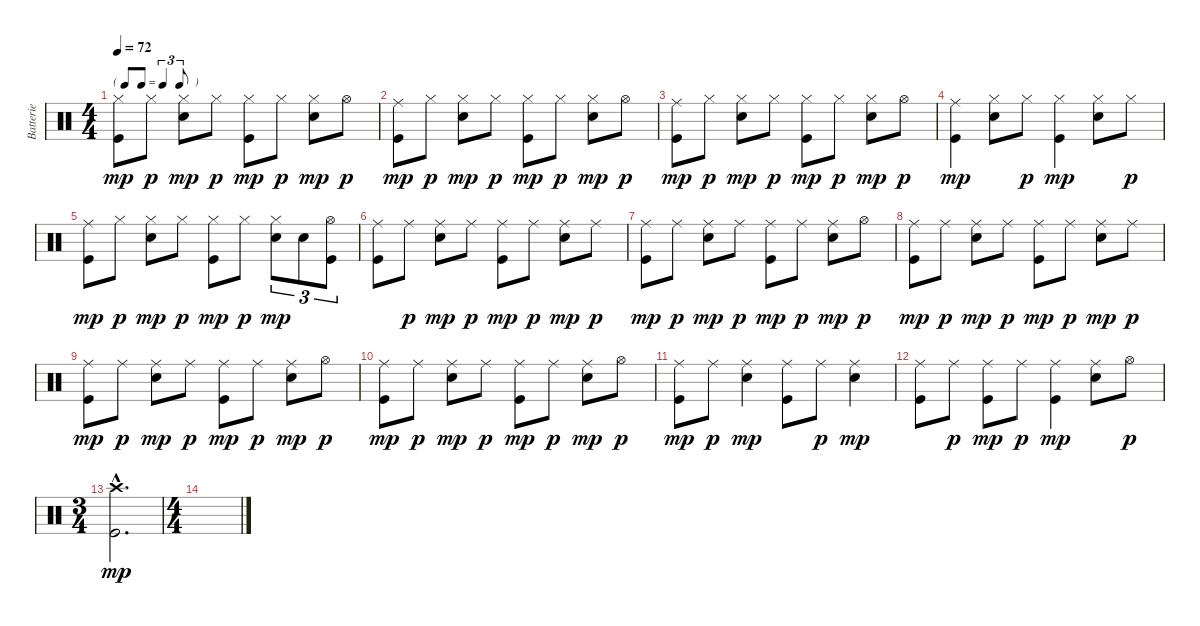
\track ("Batterie" "Batterie") {instrument percussion}
\staff {score}
\articulation defaults
\ts (4 4)
\tf triplet8th
\tempo 72
\clef neutral
\ks c
("Hi-Hat (closed)" "Kick (hit)").8{dy mp} "Hi-Hat (closed)".8{dy p} ("Hi-Hat (closed)" "Snare (hit) 2").8{dy mp} "Hi-Hat (closed)".8{dy p} ("Hi-Hat (closed)" "Kick (hit)").8{dy mp} "Hi-Hat (closed)".8{dy p} ("Hi-Hat (closed)" "Snare (hit) 2").8{dy mp} "Hi-Hat (open)".8{dy p} |
("Ride (middle)" "Kick (hit)").8{dy mp} "Hi-Hat (closed)".8{dy p} ("Hi-Hat (closed)" "Snare (hit) 2").8{dy mp} "Hi-Hat (closed)".8{dy p} ("Hi-Hat (closed)" "Kick (hit)").8{dy mp} "Hi-Hat (closed)".8{dy p} ("Hi-Hat (closed)" "Snare (hit) 2").8{dy mp} "Hi-Hat (open)".8{dy p} |
("Ride (middle)" "Kick (hit)").8{dy mp} "Hi-Hat (closed)".8{dy p} ("Hi-Hat (closed)" "Snare (hit) 2").8{dy mp} "Hi-Hat (closed)".8{dy p} ("Hi-Hat (closed)" "Kick (hit)").8{dy mp} "Hi-Hat (closed)".8{dy p} ("Hi-Hat (closed)" "Snare (hit) 2").8{dy mp} "Hi-Hat (open)".8{dy p} |
("Ride (middle)" "Kick (hit)").4{dy mp} ("Hi-Hat (closed)" "Snare (hit) 2").8 "Hi-Hat (closed)".8{dy p} ("Hi-Hat (closed)" "Kick (hit)").4{dy mp} ("Hi-Hat (closed)" "Snare (hit) 2").8 "Hi-Hat (closed)".8{dy p} |
("Ride (middle)" "Kick (hit)").8{dy mp} "Hi-Hat (closed)".8{dy p} ("Hi-Hat (closed)" "Snare (hit) 2").8{dy mp} "Hi-Hat (closed)".8{dy p} ("Hi-Hat (closed)" "Kick (hit)").8{dy mp} "Hi-Hat (closed)".8{dy p} ("Hi-Hat (closed)" "Snare (hit) 2").8{tu (3 2) dy mp} "Snare (hit) 2".8{tu (3 2)} ("Hi-Hat (open)" "Kick (hit)").8{tu (3 2)} |
("Ride (middle)" "Kick (hit)").8 "Ride (middle)".8{dy p} ("Ride (middle)" "Snare (hit) 2").8{dy mp} "Ride (middle)".8{dy p} ("Ride (middle)" "Kick (hit)").8{dy mp} "Ride (middle)".8{dy p} ("Ride (middle)" "Snare (hit) 2").8{dy mp} "Ride (middle)".8{dy p} |
("Ride (middle)" "Kick (hit)").8{dy mp} "Ride (middle)".8{dy p} ("Ride (middle)" "Snare (hit) 2").8{dy mp} "Ride (middle)".8{dy p} ("Ride (middle)" "Kick (hit)").8{dy mp} "Ride (middle)".8{dy p} ("Ride (middle)" "Snare (hit) 2").8{dy mp} "Hi-Hat (open)".8{dy p} |
("Ride (middle)" "Kick (hit)").8{dy mp} "Ride (middle)".8{dy p} ("Ride (middle)" "Snare (hit) 2").8{dy mp} "Ride (middle)".8{dy p} ("Ride (middle)" "Kick (hit)").8{dy mp} "Ride (middle)".8{dy p} ("Ride (middle)" "Snare (hit) 2").8{dy mp} "Ride (middle)".8{dy p} |
("Ride (middle)" "Kick (hit)").8{dy mp} "Ride (middle)".8{dy p} ("Ride (middle)" "Snare (hit) 2").8{dy mp} "Ride (middle)".8{dy p} ("Ride (middle)" "Kick (hit)").8{dy mp} "Ride (middle)".8{dy p} ("Ride (middle)" "Snare (hit) 2").8{dy mp} "Hi-Hat (open)".8{dy p} |
("Ride (middle)" "Kick (hit)").8{dy mp} "Ride (middle)".8{dy p} ("Ride (middle)" "Snare (hit) 2").8{dy mp} "Ride (middle)".8{dy p} ("Ride (middle)" "Kick (hit)").8{dy mp} "Ride (middle)".8{dy p} ("Ride (middle)" "Snare (hit) 2").8{dy mp} "Hi-Hat (open)".8{dy p} |
("Ride (middle)" "Kick (hit)").8{dy mp} "Ride (middle)".8{dy p} ("Ride (middle)" "Snare (hit) 2").4{dy mp} ("Ride (middle)" "Kick (hit)").8 "Ride (middle)".8{dy p} ("Ride (middle)" "Snare (hit) 2").4{dy mp} |
("Ride (middle)" "Kick (hit)").8 "Ride (middle)".8{dy p} ("Ride (middle)" "Kick (hit)").8{dy mp} "Ride (middle)".8{dy p} ("Ride (middle)" "Kick (hit)").4{dy mp} ("Ride (middle)" "Snare (hit) 2").8 "Hi-Hat (open)".8{dy p} |
\ts (3 4)
("Crash high (hit)"{hac} "Kick (hit)"{hac}).2{d dy mp} |
\ts (4 4)
